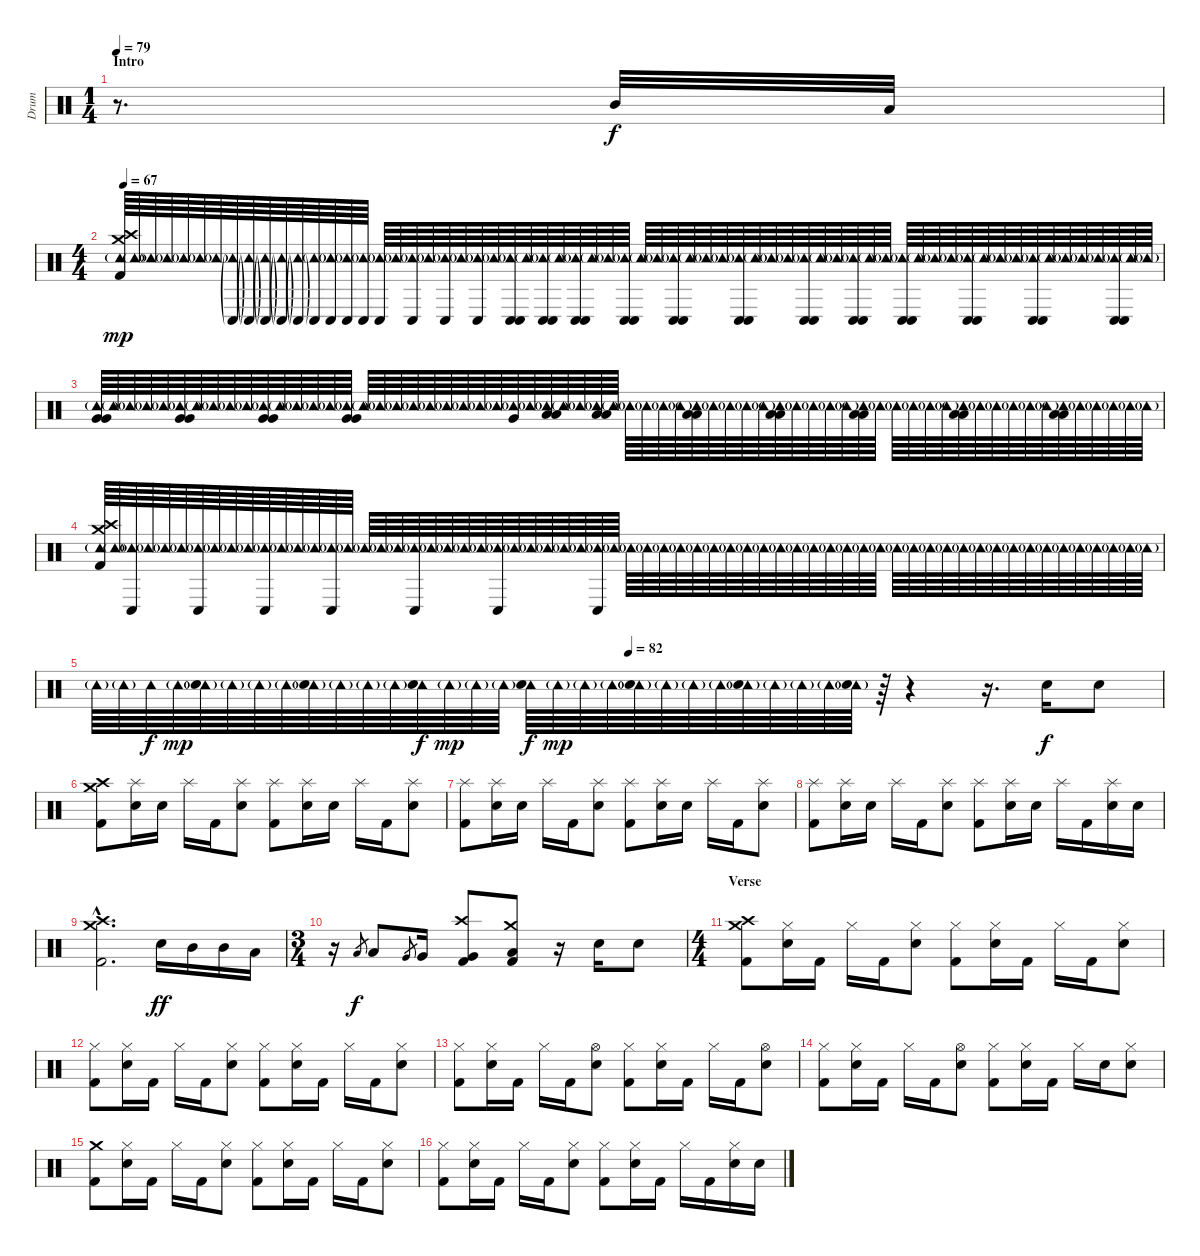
\track ("Drum" "Drum") {instrument percussion}
\staff {score}
\articulation defaults
\ts (1 4)
\section ("" "Intro")
\tempo 79
\clef neutral
\ks c
r.8{d dy f} "Mid Tom (hit)".32 "Low Tom (hit)".32 |
\ts (4 4)
\tempo 67
("Tambourine (hit)"{g} "Kick (hit) 2" "Crash high (hit)" "Crash medium (hit)").64{dy mp volume 7} "Tambourine (hit)"{g}.64 "Tambourine (hit)"{g}.64 "Tambourine (hit)"{g}.64 "Tambourine (hit)"{g}.64 "Tambourine (hit)"{g}.64 "Tambourine (hit)"{g}.64 ("Tambourine (hit)"{g} "Conga low (hit)"{g}).64 ("Tambourine (hit)"{g} "Conga low (hit)"{g}).64 ("Tambourine (hit)"{g} "Conga low (hit)"{g}).64 ("Tambourine (hit)"{g} "Conga low (hit)"{g}).64 ("Tambourine (hit)"{g} "Conga low (hit)"{g}).64 ("Tambourine (hit)"{g} "Conga low (hit)").64 ("Tambourine (hit)"{g} "Conga low (hit)").64 ("Tambourine (hit)"{g} "Conga low (hit)").64 ("Tambourine (hit)"{g} "Conga low (hit)").64 ("Tambourine (hit)"{g} "Conga low (hit)").64 "Tambourine (hit)"{g}.64 ("Tambourine (hit)"{g} "Conga low (hit)").64 "Tambourine (hit)"{g}.64 ("Tambourine (hit)"{g} "Conga low (hit)").64 "Tambourine (hit)"{g}.64 ("Tambourine (hit)"{g} "Conga low (hit)").64 "Tambourine (hit)"{g}.64 ("Tambourine (hit)"{g} "Conga low (hit)" "Conga low (hit)").64 "Tambourine (hit)"{g}.64 ("Tambourine (hit)"{g} "Conga low (hit)" "Conga low (hit)").64 "Tambourine (hit)"{g}.64 ("Tambourine (hit)"{g} "Conga low (hit)" "Conga low (hit)").64 "Tambourine (hit)"{g}.64 "Tambourine (hit)"{g}.64 ("Tambourine (hit)"{g} "Conga low (hit)" "Conga low (hit)").64 "Tambourine (hit)"{g}.64 "Tambourine (hit)"{g}.64 ("Tambourine (hit)"{g} "Conga low (hit)" "Conga low (hit)").64 "Tambourine (hit)"{g}.64 "Tambourine (hit)"{g}.64 "Tambourine (hit)"{g}.64 ("Tambourine (hit)"{g} "Conga low (hit)" "Conga low (hit)").64 "Tambourine (hit)"{g}.64 "Tambourine (hit)"{g}.64 "Tambourine (hit)"{g}.64 ("Tambourine (hit)"{g} "Conga low (hit)" "Conga low (hit)").64 "Tambourine (hit)"{g}.64 "Tambourine (hit)"{g}.64 ("Tambourine (hit)"{g} "Conga low (hit)" "Conga low (hit)").64 "Tambourine (hit)"{g}.64 "Tambourine (hit)"{g}.64 ("Tambourine (hit)"{g} "Conga low (hit)" "Conga low (hit)").64 "Tambourine (hit)"{g}.64 "Tambourine (hit)"{g}.64 "Tambourine (hit)"{g}.64 ("Tambourine (hit)"{g} "Conga low (hit)" "Conga low (hit)").64 "Tambourine (hit)"{g}.64 "Tambourine (hit)"{g}.64 "Tambourine (hit)"{g}.64 ("Tambourine (hit)"{g} "Conga low (hit)" "Conga low (hit)").64 "Tambourine (hit)"{g}.64 "Tambourine (hit)"{g}.64 "Tambourine (hit)"{g}.64 "Tambourine (hit)"{g}.64 ("Tambourine (hit)"{g} "Conga low (hit)" "Conga low (hit)").64 "Tambourine (hit)"{g}.64 "Tambourine (hit)"{g}.64 |
("Tambourine (hit)"{g} "Very Low Tom (hit)" "Very Low Tom (hit)").64{volume 13} "Tambourine (hit)"{g}.64 "Tambourine (hit)"{g}.64 "Tambourine (hit)"{g}.64 "Tambourine (hit)"{g}.64 ("Tambourine (hit)"{g} "Very Low Tom (hit)" "Very Low Tom (hit)").64 "Tambourine (hit)"{g}.64 "Tambourine (hit)"{g}.64 "Tambourine (hit)"{g}.64 "Tambourine (hit)"{g}.64 ("Tambourine (hit)"{g} "Very Low Tom (hit)" "Very Low Tom (hit)").64 "Tambourine (hit)"{g}.64 "Tambourine (hit)"{g}.64 "Tambourine (hit)"{g}.64 "Tambourine (hit)"{g}.64 ("Tambourine (hit)"{g} "Very Low Tom (hit)" "Very Low Tom (hit)").64 "Tambourine (hit)"{g}.64 "Tambourine (hit)"{g}.64 "Tambourine (hit)"{g}.64 "Tambourine (hit)"{g}.64 "Tambourine (hit)"{g}.64 "Tambourine (hit)"{g}.64 "Tambourine (hit)"{g}.64 "Tambourine (hit)"{g}.64 "Tambourine (hit)"{g}.64 ("Tambourine (hit)"{g} "Very Low Tom (hit)").64 "Tambourine (hit)"{g}.64 ("Tambourine (hit)"{g} "Low Tom (hit)" "Low Tom (hit)").64 "Tambourine (hit)"{g}.64 "Tambourine (hit)"{g}.64 ("Tambourine (hit)"{g} "Low Tom (hit)" "Low Tom (hit)").64 "Tambourine (hit)"{g}.64 "Tambourine (hit)"{g}.64 "Tambourine (hit)"{g}.64 "Tambourine (hit)"{g}.64 "Tambourine (hit)"{g}.64 ("Tambourine (hit)"{g} "Low Tom (hit)" "Low Tom (hit)").64 "Tambourine (hit)"{g}.64 "Tambourine (hit)"{g}.64 "Tambourine (hit)"{g}.64 "Tambourine (hit)"{g}.64 ("Tambourine (hit)"{g} "Low Tom (hit)" "Low Tom (hit)").64 "Tambourine (hit)"{g}.64 "Tambourine (hit)"{g}.64 "Tambourine (hit)"{g}.64 "Tambourine (hit)"{g}.64 ("Tambourine (hit)"{g} "Low Tom (hit)" "Low Tom (hit)").64 "Tambourine (hit)"{g}.64 "Tambourine (hit)"{g}.64 "Tambourine (hit)"{g}.64 "Tambourine (hit)"{g}.64 "Tambourine (hit)"{g}.64 ("Tambourine (hit)"{g} "Low Tom (hit)" "Low Tom (hit)").64 "Tambourine (hit)"{g}.64 "Tambourine (hit)"{g}.64 "Tambourine (hit)"{g}.64 "Tambourine (hit)"{g}.64 "Tambourine (hit)"{g}.64 ("Tambourine (hit)"{g} "Low Tom (hit)" "Low Tom (hit)").64 "Tambourine (hit)"{g}.64 "Tambourine (hit)"{g}.64 "Tambourine (hit)"{g}.64 "Tambourine (hit)"{g}.64 "Tambourine (hit)"{g}.64 |
("Tambourine (hit)"{g} "Kick (hit) 2" "Crash high (hit)" "Crash medium (hit)").64{volume 7} "Tambourine (hit)"{g}.64 ("Tambourine (hit)"{g} "Conga low (hit)").64 "Tambourine (hit)"{g}.64 "Tambourine (hit)"{g}.64 "Tambourine (hit)"{g}.64 ("Tambourine (hit)"{g} "Conga low (hit)").64 "Tambourine (hit)"{g}.64 "Tambourine (hit)"{g}.64 "Tambourine (hit)"{g}.64 ("Tambourine (hit)"{g} "Conga low (hit)").64 "Tambourine (hit)"{g}.64 "Tambourine (hit)"{g}.64 "Tambourine (hit)"{g}.64 ("Tambourine (hit)"{g} "Conga low (hit)").64 "Tambourine (hit)"{g}.64 "Tambourine (hit)"{g}.64 "Tambourine (hit)"{g}.64 "Tambourine (hit)"{g}.64 ("Tambourine (hit)"{g} "Conga low (hit)").64 "Tambourine (hit)"{g}.64 "Tambourine (hit)"{g}.64 "Tambourine (hit)"{g}.64 "Tambourine (hit)"{g}.64 ("Tambourine (hit)"{g} "Conga low (hit)").64 "Tambourine (hit)"{g}.64 "Tambourine (hit)"{g}.64 "Tambourine (hit)"{g}.64 "Tambourine (hit)"{g}.64 "Tambourine (hit)"{g}.64 ("Tambourine (hit)"{g} "Conga low (hit)").64 "Tambourine (hit)"{g}.64 "Tambourine (hit)"{g}.64 "Tambourine (hit)"{g}.64 "Tambourine (hit)"{g}.64 "Tambourine (hit)"{g}.64 "Tambourine (hit)"{g}.64 "Tambourine (hit)"{g}.64 "Tambourine (hit)"{g}.64 "Tambourine (hit)"{g}.64 "Tambourine (hit)"{g}.64 "Tambourine (hit)"{g}.64 "Tambourine (hit)"{g}.64 "Tambourine (hit)"{g}.64 "Tambourine (hit)"{g}.64 "Tambourine (hit)"{g}.64 "Tambourine (hit)"{g}.64 "Tambourine (hit)"{g}.64 "Tambourine (hit)"{g}.64 "Tambourine (hit)"{g}.64 "Tambourine (hit)"{g}.64 "Tambourine (hit)"{g}.64 "Tambourine (hit)"{g}.64 "Tambourine (hit)"{g}.64 "Tambourine (hit)"{g}.64 "Tambourine (hit)"{g}.64 "Tambourine (hit)"{g}.64 "Tambourine (hit)"{g}.64 "Tambourine (hit)"{g}.64 "Tambourine (hit)"{g}.64 "Tambourine (hit)"{g}.64 "Tambourine (hit)"{g}.64 "Tambourine (hit)"{g}.64 "Tambourine (hit)"{g}.64 |
\tempo (82 0.5)
"Tambourine (hit)"{g}.64{volume 13} "Tambourine (hit)"{g}.64 "Tambourine (hit)".64{dy f} "Tambourine (hit)"{g}.64{dy mp} ("Tambourine (hit)"{g} "Electric Snare (hit)").64 "Tambourine (hit)"{g}.64 "Tambourine (hit)"{g}.64 "Tambourine (hit)"{g}.64 ("Tambourine (hit)"{g} "Electric Snare (hit)").64 "Tambourine (hit)"{g}.64 "Tambourine (hit)"{g}.64 "Tambourine (hit)"{g}.64 ("Tambourine (hit)" "Electric Snare (hit)").64{dy f} "Tambourine (hit)"{g}.64{dy mp} "Tambourine (hit)"{g}.64 "Tambourine (hit)"{g}.64 ("Tambourine (hit)" "Electric Snare (hit)").64{dy f} "Tambourine (hit)"{g}.64{dy mp} "Tambourine (hit)"{g}.64 "Tambourine (hit)"{g}.64 ("Tambourine (hit)"{g} "Electric Snare (hit)").64 "Tambourine (hit)"{g}.64 "Tambourine (hit)"{g}.64 "Tambourine (hit)"{g}.64 ("Tambourine (hit)"{g} "Electric Snare (hit)").64 "Tambourine (hit)"{g}.64 "Tambourine (hit)"{g}.64 "Tambourine (hit)"{g}.64 ("Tambourine (hit)"{g} "Electric Snare (hit)").64 r.64 r.4 r.16{d} "Electric Snare (hit)".16{dy f} "Electric Snare (hit)".8 |
("Kick (hit) 2" "Crash high (hit)" "Crash medium (hit)").8 ("Splash (hit)" "Electric Snare (hit)").16 "Electric Snare (hit)".16 "Splash (hit)".16 "Kick (hit) 2".16 ("Splash (hit)" "Electric Snare (hit)").8 ("Splash (hit)" "Kick (hit) 2").8 ("Splash (hit)" "Electric Snare (hit)").16 "Electric Snare (hit)".16 "Splash (hit)".16 "Kick (hit) 2".16 ("Splash (hit)" "Electric Snare (hit)").8 |
("Splash (hit)" "Kick (hit) 2").8 ("Splash (hit)" "Electric Snare (hit)").16 "Electric Snare (hit)".16 "Splash (hit)".16 "Kick (hit) 2".16 ("Splash (hit)" "Electric Snare (hit)").8 ("Splash (hit)" "Kick (hit) 2").8 ("Splash (hit)" "Electric Snare (hit)").16 "Electric Snare (hit)".16 "Splash (hit)".16 "Kick (hit) 2".16 ("Splash (hit)" "Electric Snare (hit)").8 |
("Splash (hit)" "Kick (hit) 2").8 ("Splash (hit)" "Electric Snare (hit)").16 "Electric Snare (hit)".16 "Splash (hit)".16 "Kick (hit) 2".16 ("Splash (hit)" "Electric Snare (hit)").8 ("Splash (hit)" "Kick (hit) 2").8 ("Splash (hit)" "Electric Snare (hit)").16 "Electric Snare (hit)".16 "Splash (hit)".16 "Kick (hit) 2".16 ("Splash (hit)" "Electric Snare (hit)").16 "Electric Snare (hit)".16 |
("Kick (hit) 2"{hac} "Crash high (hit)"{hac} "Crash medium (hit)"{hac}).2{d} "Electric Snare (hit)".16{dy ff} "Mid Tom (hit)".16 "Mid Tom (hit)".16 "Low Tom (hit)".16 |
\ts (3 4)
r.16 "Low Tom (hit)".8{gr dy f} "Low Tom (hit)".8 "Very Low Tom (hit)".8{gr} "Very Low Tom (hit)".16 ("Very Low Tom (hit)" "Kick (hit) 2" "Crash high (hit)").8 ("Low Floor Tom (hit)" "Kick (hit) 2" "Crash medium (hit)").8 r.16 "Electric Snare (hit)".16 "Electric Snare (hit)".8 |
\ts (4 4)
\section ("" "Verse ")
("Kick (hit) 2" "Crash high (hit)" "Crash medium (hit)").8 ("Hi-Hat (closed)" "Electric Snare (hit)").16 "Kick (hit) 2".16 "Hi-Hat (closed)".16 "Kick (hit) 2".16 ("Hi-Hat (closed)" "Electric Snare (hit)").8 ("Hi-Hat (closed)" "Kick (hit) 2").8 ("Hi-Hat (closed)" "Electric Snare (hit)").16 "Kick (hit) 2".16 "Hi-Hat (closed)".16 "Kick (hit) 2".16 ("Hi-Hat (closed)" "Electric Snare (hit)").8 |
("Hi-Hat (closed)" "Kick (hit) 2").8 ("Hi-Hat (closed)" "Electric Snare (hit)").16 "Kick (hit) 2".16 "Hi-Hat (closed)".16 "Kick (hit) 2".16 ("Hi-Hat (closed)" "Electric Snare (hit)").8 ("Hi-Hat (closed)" "Kick (hit) 2").8 ("Hi-Hat (closed)" "Electric Snare (hit)").16 "Kick (hit) 2".16 "Hi-Hat (closed)".16 "Kick (hit) 2".16 ("Hi-Hat (closed)" "Electric Snare (hit)").8 |
("Hi-Hat (closed)" "Kick (hit) 2").8 ("Hi-Hat (closed)" "Electric Snare (hit)").16 "Kick (hit) 2".16 "Hi-Hat (closed)".16 "Kick (hit) 2".16 ("Hi-Hat (open)" "Electric Snare (hit)").8 ("Hi-Hat (closed)" "Kick (hit) 2").8 ("Hi-Hat (closed)" "Electric Snare (hit)").16 "Kick (hit) 2".16 "Hi-Hat (closed)".16 "Kick (hit) 2".16 ("Hi-Hat (open)" "Electric Snare (hit)").8 |
("Hi-Hat (closed)" "Kick (hit) 2").8 ("Hi-Hat (closed)" "Electric Snare (hit)").16 "Kick (hit) 2".16 "Hi-Hat (closed)".16 "Kick (hit) 2".16 ("Hi-Hat (open)" "Electric Snare (hit)").8 ("Hi-Hat (closed)" "Kick (hit) 2").8 ("Hi-Hat (closed)" "Electric Snare (hit)").16 "Kick (hit) 2".16 "Hi-Hat (closed)".16 "Electric Snare (hit)".16 ("Hi-Hat (closed)" "Electric Snare (hit)").8 |
\section ("" "")
("Kick (hit) 2" "Crash medium (hit)").8 ("Hi-Hat (closed)" "Electric Snare (hit)").16 "Kick (hit) 2".16 "Hi-Hat (closed)".16 "Kick (hit) 2".16 ("Hi-Hat (closed)" "Electric Snare (hit)").8 ("Hi-Hat (closed)" "Kick (hit) 2").8 ("Hi-Hat (closed)" "Electric Snare (hit)").16 "Kick (hit) 2".16 "Hi-Hat (closed)".16 "Kick (hit) 2".16 ("Hi-Hat (closed)" "Electric Snare (hit)").8 |
("Hi-Hat (closed)" "Kick (hit) 2").8 ("Hi-Hat (closed)" "Electric Snare (hit)").16 "Kick (hit) 2".16 "Hi-Hat (closed)".16 "Kick (hit) 2".16 ("Hi-Hat (closed)" "Electric Snare (hit)").8 ("Hi-Hat (closed)" "Kick (hit) 2").8 ("Hi-Hat (closed)" "Electric Snare (hit)").16 "Kick (hit) 2".16 "Hi-Hat (closed)".16 "Kick (hit) 2".16 ("Hi-Hat (closed)" "Electric Snare (hit)").16 "Electric Snare (hit)".16
